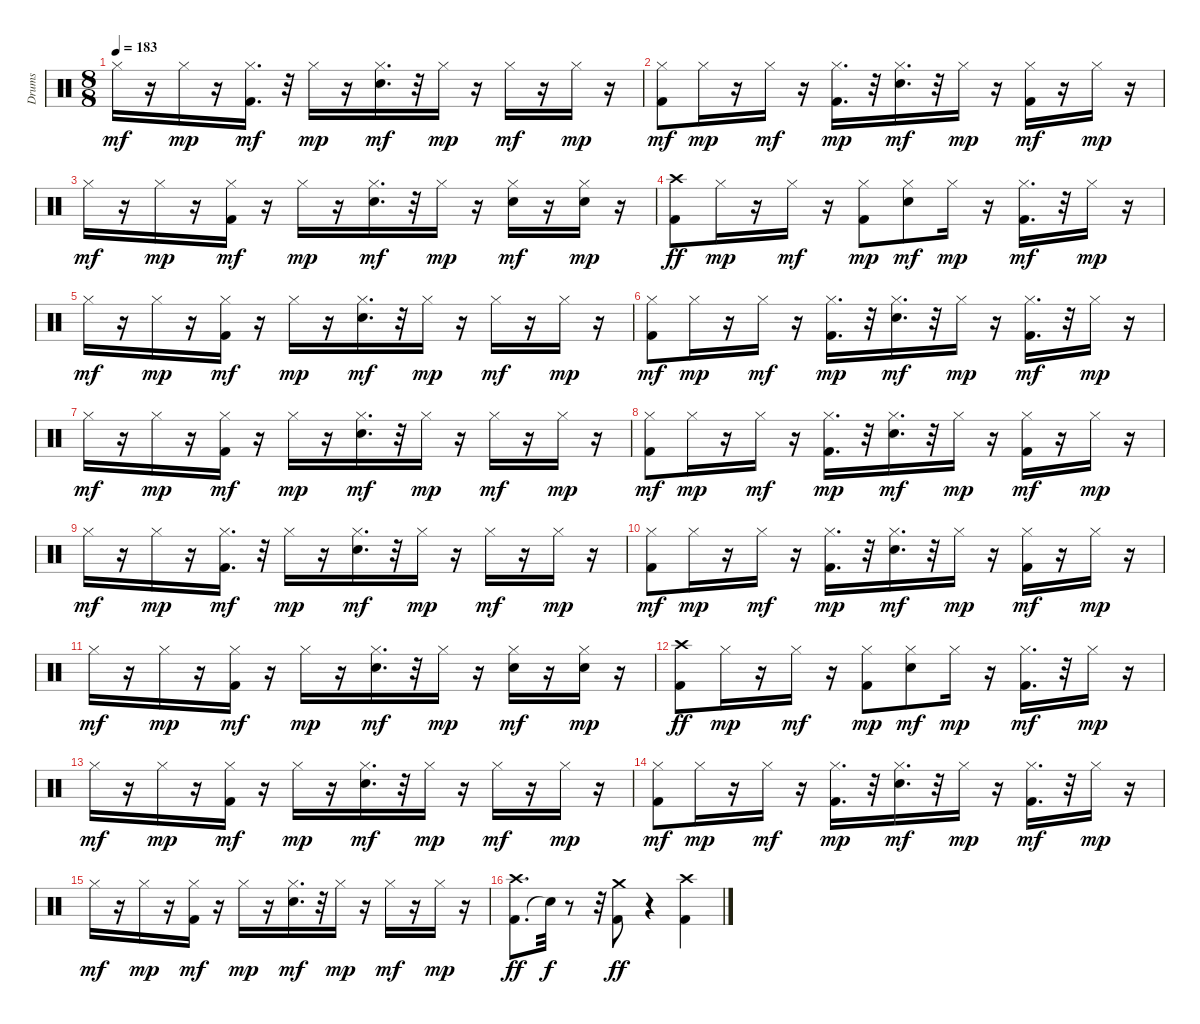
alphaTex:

\track ("Drums" "Drums") {instrument percussion}
\staff {score}
\articulation defaults
\ts (8 8)
\tempo 183
\clef neutral
\ks c "Hi-Hat (closed)".16{dy mf}
r.16 "Hi-Hat (closed)".16{dy mp} r.16 ("Kick (hit) 2" "Hi-Hat (closed)").16{d dy mf} r.32 "Hi-Hat (closed)".16{dy mp} r.16 ("Snare (hit) 2" "Hi-Hat (closed)").16{d dy mf} r.32 "Hi-Hat (closed)".16{dy mp} r.16 "Hi-Hat (closed)".16{dy mf} r.16 "Hi-Hat (closed)".16{dy mp} r.16 |
("Kick (hit) 2" "Hi-Hat (closed)").8{dy mf} "Hi-Hat (closed)".16{dy mp} r.16 "Hi-Hat (closed)".16{dy mf} r.16 ("Kick (hit) 2" "Hi-Hat (closed)").16{d dy mp} r.32 ("Snare (hit) 2" "Hi-Hat (closed)").16{d dy mf} r.32 "Hi-Hat (closed)".16{dy mp} r.16 ("Kick (hit) 2" "Hi-Hat (closed)").16{dy mf} r.16 "Hi-Hat (closed)".16{dy mp} r.16 |
"Hi-Hat (closed)".16{dy mf} r.16 "Hi-Hat (closed)".16{dy mp} r.16 ("Kick (hit) 2" "Hi-Hat (closed)").16{dy mf} r.16 "Hi-Hat (closed)".16{dy mp} r.16 ("Snare (hit) 2" "Hi-Hat (closed)").16{d dy mf} r.32 "Hi-Hat (closed)".16{dy mp} r.16 ("Snare (hit) 2" "Hi-Hat (closed)").16{dy mf} r.16 ("Snare (hit) 2" "Hi-Hat (closed)").16{dy mp} r.16 |
("Kick (hit) 2" "Crash high (hit)").8{dy ff} "Hi-Hat (closed)".16{dy mp} r.16 "Hi-Hat (closed)".16{dy mf} r.16 ("Kick (hit) 2" "Hi-Hat (closed)").8{dy mp} ("Snare (hit) 2" "Hi-Hat (closed)").8{dy mf} "Hi-Hat (closed)".16{dy mp} r.16 ("Kick (hit) 2" "Hi-Hat (closed)").16{d dy mf} r.32 "Hi-Hat (closed)".16{dy mp} r.16 |
"Hi-Hat (closed)".16{dy mf} r.16 "Hi-Hat (closed)".16{dy mp} r.16 ("Kick (hit) 2" "Hi-Hat (closed)").16{dy mf} r.16 "Hi-Hat (closed)".16{dy mp} r.16 ("Snare (hit) 2" "Hi-Hat (closed)").16{d dy mf} r.32 "Hi-Hat (closed)".16{dy mp} r.16 "Hi-Hat (closed)".16{dy mf} r.16 "Hi-Hat (closed)".16{dy mp} r.16 |
("Kick (hit) 2" "Hi-Hat (closed)").8{dy mf} "Hi-Hat (closed)".16{dy mp} r.16 "Hi-Hat (closed)".16{dy mf} r.16 ("Kick (hit) 2" "Hi-Hat (closed)").16{d dy mp} r.32 ("Snare (hit) 2" "Hi-Hat (closed)").16{d dy mf} r.32 "Hi-Hat (closed)".16{dy mp} r.16 ("Kick (hit) 2" "Hi-Hat (closed)").16{d dy mf} r.32 "Hi-Hat (closed)".16{dy mp} r.16 |
"Hi-Hat (closed)".16{dy mf} r.16 "Hi-Hat (closed)".16{dy mp} r.16 ("Kick (hit) 2" "Hi-Hat (closed)").16{dy mf} r.16 "Hi-Hat (closed)".16{dy mp} r.16 ("Snare (hit) 2" "Hi-Hat (closed)").16{d dy mf} r.32 "Hi-Hat (closed)".16{dy mp} r.16 "Hi-Hat (closed)".16{dy mf} r.16 "Hi-Hat (closed)".16{dy mp} r.16 |
("Kick (hit) 2" "Hi-Hat (closed)").8{dy mf} "Hi-Hat (closed)".16{dy mp} r.16 "Hi-Hat (closed)".16{dy mf} r.16 ("Kick (hit) 2" "Hi-Hat (closed)").16{d dy mp} r.32 ("Snare (hit) 2" "Hi-Hat (closed)").16{d dy mf} r.32 "Hi-Hat (closed)".16{dy mp} r.16 ("Kick (hit) 2" "Hi-Hat (closed)").16{dy mf} r.16 "Hi-Hat (closed)".16{dy mp} r.16 |
"Hi-Hat (closed)".16{dy mf} r.16 "Hi-Hat (closed)".16{dy mp} r.16 ("Kick (hit) 2" "Hi-Hat (closed)").16{d dy mf} r.32 "Hi-Hat (closed)".16{dy mp} r.16 ("Snare (hit) 2" "Hi-Hat (closed)").16{d dy mf} r.32 "Hi-Hat (closed)".16{dy mp} r.16 "Hi-Hat (closed)".16{dy mf} r.16 "Hi-Hat (closed)".16{dy mp} r.16 |
("Kick (hit) 2" "Hi-Hat (closed)").8{dy mf} "Hi-Hat (closed)".16{dy mp} r.16 "Hi-Hat (closed)".16{dy mf} r.16 ("Kick (hit) 2" "Hi-Hat (closed)").16{d dy mp} r.32 ("Snare (hit) 2" "Hi-Hat (closed)").16{d dy mf} r.32 "Hi-Hat (closed)".16{dy mp} r.16 ("Kick (hit) 2" "Hi-Hat (closed)").16{dy mf} r.16 "Hi-Hat (closed)".16{dy mp} r.16 |
"Hi-Hat (closed)".16{dy mf} r.16 "Hi-Hat (closed)".16{dy mp} r.16 ("Kick (hit) 2" "Hi-Hat (closed)").16{dy mf} r.16 "Hi-Hat (closed)".16{dy mp} r.16 ("Snare (hit) 2" "Hi-Hat (closed)").16{d dy mf} r.32 "Hi-Hat (closed)".16{dy mp} r.16 ("Snare (hit) 2" "Hi-Hat (closed)").16{dy mf} r.16 ("Snare (hit) 2" "Hi-Hat (closed)").16{dy mp} r.16 |
("Kick (hit) 2" "Crash high (hit)").8{dy ff} "Hi-Hat (closed)".16{dy mp} r.16 "Hi-Hat (closed)".16{dy mf} r.16 ("Kick (hit) 2" "Hi-Hat (closed)").8{dy mp} ("Snare (hit) 2" "Hi-Hat (closed)").8{dy mf} "Hi-Hat (closed)".16{dy mp} r.16 ("Kick (hit) 2" "Hi-Hat (closed)").16{d dy mf} r.32 "Hi-Hat (closed)".16{dy mp} r.16 |
"Hi-Hat (closed)".16{dy mf} r.16 "Hi-Hat (closed)".16{dy mp} r.16 ("Kick (hit) 2" "Hi-Hat (closed)").16{dy mf} r.16 "Hi-Hat (closed)".16{dy mp} r.16 ("Snare (hit) 2" "Hi-Hat (closed)").16{d dy mf} r.32 "Hi-Hat (closed)".16{dy mp} r.16 "Hi-Hat (closed)".16{dy mf} r.16 "Hi-Hat (closed)".16{dy mp} r.16 |
("Kick (hit) 2" "Hi-Hat (closed)").8{dy mf} "Hi-Hat (closed)".16{dy mp} r.16 "Hi-Hat (closed)".16{dy mf} r.16 ("Kick (hit) 2" "Hi-Hat (closed)").16{d dy mp} r.32 ("Snare (hit) 2" "Hi-Hat (closed)").16{d dy mf} r.32 "Hi-Hat (closed)".16{dy mp} r.16 ("Kick (hit) 2" "Hi-Hat (closed)").16{d dy mf} r.32 "Hi-Hat (closed)".16{dy mp} r.16 |
"Hi-Hat (closed)".16{dy mf} r.16 "Hi-Hat (closed)".16{dy mp} r.16 ("Kick (hit) 2" "Hi-Hat (closed)").16{dy mf} r.16 "Hi-Hat (closed)".16{dy mp} r.16 ("Snare (hit) 2" "Hi-Hat (closed)").16{d dy mf} r.32 "Hi-Hat (closed)".16{dy mp} r.16 "Hi-Hat (closed)".16{dy mf} r.16 "Hi-Hat (closed)".16{dy mp} r.16 |
("Kick (hit) 2" "Crash high (hit)").8{d dy ff} "Snare (hit)"{t}.32{dy f} r.8 r.32 ("Kick (hit) 2" "Crash medium (hit)").8{dy ff} r.4 ("Kick (hit) 2" "Crash high (hit)").4
